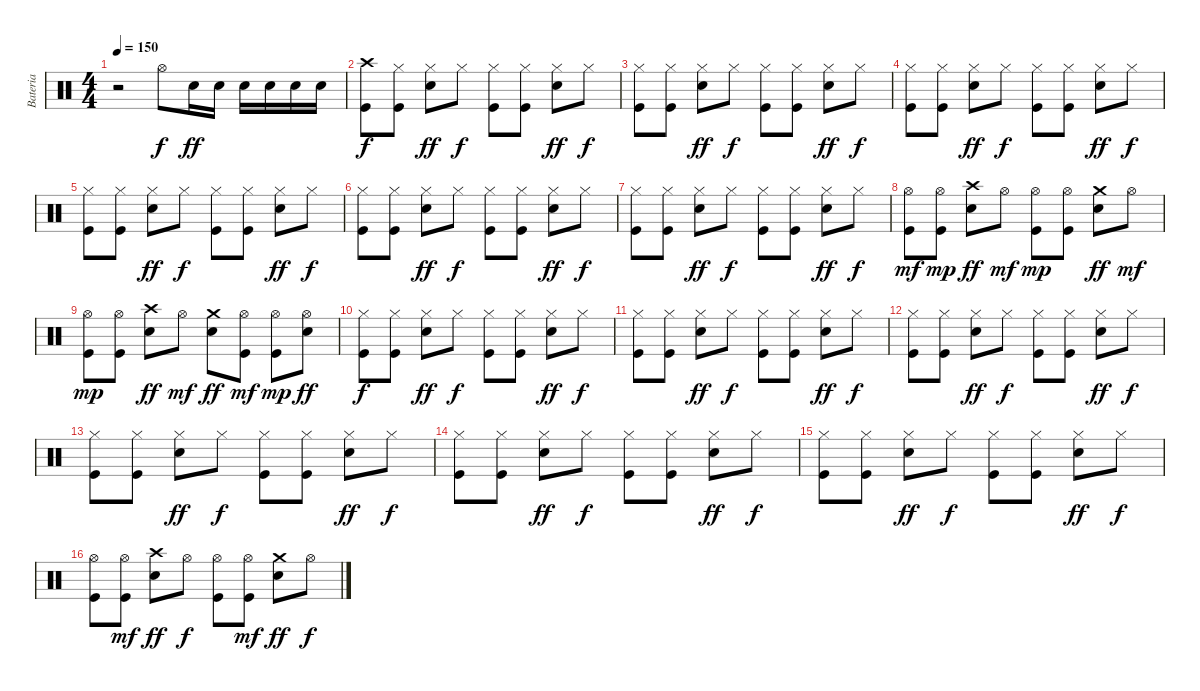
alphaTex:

\track ("Bateria" "Bateria") {instrument percussion}
\staff {score}
\articulation defaults
\ts (4 4)
\tempo 150
\clef neutral
\ks c
r.2{dy f} "Hi-Hat (open)".8 "Electric Snare (hit)".16{dy ff} "Electric Snare (hit)".16 "Electric Snare (hit)".16 "Electric Snare (hit)".16 "Electric Snare (hit)".16 "Electric Snare (hit)".16 |
("Crash high (hit)" "Kick (hit)").8{dy f} ("Hi-Hat (closed)" "Kick (hit)").8 ("Hi-Hat (closed)" "Electric Snare (hit)").8{dy ff} "Hi-Hat (closed)".8{dy f} ("Hi-Hat (closed)" "Kick (hit)").8 ("Hi-Hat (closed)" "Kick (hit)").8 ("Hi-Hat (closed)" "Electric Snare (hit)").8{dy ff} "Hi-Hat (closed)".8{dy f} |
("Hi-Hat (closed)" "Kick (hit)").8 ("Hi-Hat (closed)" "Kick (hit)").8 ("Hi-Hat (closed)" "Electric Snare (hit)").8{dy ff} "Hi-Hat (closed)".8{dy f} ("Hi-Hat (closed)" "Kick (hit)").8 ("Hi-Hat (closed)" "Kick (hit)").8 ("Hi-Hat (closed)" "Electric Snare (hit)").8{dy ff} "Hi-Hat (closed)".8{dy f} |
("Hi-Hat (closed)" "Kick (hit)").8 ("Hi-Hat (closed)" "Kick (hit)").8 ("Hi-Hat (closed)" "Electric Snare (hit)").8{dy ff} "Hi-Hat (closed)".8{dy f} ("Hi-Hat (closed)" "Kick (hit)").8 ("Hi-Hat (closed)" "Kick (hit)").8 ("Hi-Hat (closed)" "Electric Snare (hit)").8{dy ff} "Hi-Hat (closed)".8{dy f} |
("Hi-Hat (closed)" "Kick (hit)").8 ("Hi-Hat (closed)" "Kick (hit)").8 ("Hi-Hat (closed)" "Electric Snare (hit)").8{dy ff} "Hi-Hat (closed)".8{dy f} ("Hi-Hat (closed)" "Kick (hit)").8 ("Hi-Hat (closed)" "Kick (hit)").8 ("Hi-Hat (closed)" "Electric Snare (hit)").8{dy ff} "Hi-Hat (closed)".8{dy f} |
("Hi-Hat (closed)" "Kick (hit)").8 ("Hi-Hat (closed)" "Kick (hit)").8 ("Hi-Hat (closed)" "Electric Snare (hit)").8{dy ff} "Hi-Hat (closed)".8{dy f} ("Hi-Hat (closed)" "Kick (hit)").8 ("Hi-Hat (closed)" "Kick (hit)").8 ("Hi-Hat (closed)" "Electric Snare (hit)").8{dy ff} "Hi-Hat (closed)".8{dy f} |
("Hi-Hat (closed)" "Kick (hit)").8 ("Hi-Hat (closed)" "Kick (hit)").8 ("Hi-Hat (closed)" "Electric Snare (hit)").8{dy ff} "Hi-Hat (closed)".8{dy f} ("Hi-Hat (closed)" "Kick (hit)").8 ("Hi-Hat (closed)" "Kick (hit)").8 ("Hi-Hat (closed)" "Electric Snare (hit)").8{dy ff} "Hi-Hat (closed)".8{dy f} |
("Hi-Hat (open)" "Kick (hit)").8{dy mf} ("Hi-Hat (open)" "Kick (hit)").8{dy mp} ("Crash high (hit)" "Electric Snare (hit)").8{dy ff} "Hi-Hat (open)".8{dy mf} ("Hi-Hat (open)" "Kick (hit)").8{dy mp} ("Hi-Hat (open)" "Kick (hit)").8 ("Crash medium (hit)" "Electric Snare (hit)").8{dy ff} "Hi-Hat (open)".8{dy mf} |
("Hi-Hat (open)" "Kick (hit)").8{dy mp} ("Hi-Hat (open)" "Kick (hit)").8 ("Crash high (hit)" "Electric Snare (hit)").8{dy ff} "Hi-Hat (open)".8{dy mf} ("Crash medium (hit)" "Electric Snare (hit)").8{dy ff} ("Hi-Hat (open)" "Kick (hit)").8{dy mf} ("Hi-Hat (open)" "Kick (hit)").8{dy mp} ("Hi-Hat (open)" "Electric Snare (hit)").8{dy ff} |
("Hi-Hat (closed)" "Kick (hit)").8{dy f} ("Hi-Hat (closed)" "Kick (hit)").8 ("Hi-Hat (closed)" "Electric Snare (hit)").8{dy ff} "Hi-Hat (closed)".8{dy f} ("Hi-Hat (closed)" "Kick (hit)").8 ("Hi-Hat (closed)" "Kick (hit)").8 ("Hi-Hat (closed)" "Electric Snare (hit)").8{dy ff} "Hi-Hat (closed)".8{dy f} |
("Hi-Hat (closed)" "Kick (hit)").8 ("Hi-Hat (closed)" "Kick (hit)").8 ("Hi-Hat (closed)" "Electric Snare (hit)").8{dy ff} "Hi-Hat (closed)".8{dy f} ("Hi-Hat (closed)" "Kick (hit)").8 ("Hi-Hat (closed)" "Kick (hit)").8 ("Hi-Hat (closed)" "Electric Snare (hit)").8{dy ff} "Hi-Hat (closed)".8{dy f} |
("Hi-Hat (closed)" "Kick (hit)").8 ("Hi-Hat (closed)" "Kick (hit)").8 ("Hi-Hat (closed)" "Electric Snare (hit)").8{dy ff} "Hi-Hat (closed)".8{dy f} ("Hi-Hat (closed)" "Kick (hit)").8 ("Hi-Hat (closed)" "Kick (hit)").8 ("Hi-Hat (closed)" "Electric Snare (hit)").8{dy ff} "Hi-Hat (closed)".8{dy f} |
("Hi-Hat (closed)" "Kick (hit)").8 ("Hi-Hat (closed)" "Kick (hit)").8 ("Hi-Hat (closed)" "Electric Snare (hit)").8{dy ff} "Hi-Hat (closed)".8{dy f} ("Hi-Hat (closed)" "Kick (hit)").8 ("Hi-Hat (closed)" "Kick (hit)").8 ("Hi-Hat (closed)" "Electric Snare (hit)").8{dy ff} "Hi-Hat (closed)".8{dy f} |
("Hi-Hat (closed)" "Kick (hit)").8 ("Hi-Hat (closed)" "Kick (hit)").8 ("Hi-Hat (closed)" "Electric Snare (hit)").8{dy ff} "Hi-Hat (closed)".8{dy f} ("Hi-Hat (closed)" "Kick (hit)").8 ("Hi-Hat (closed)" "Kick (hit)").8 ("Hi-Hat (closed)" "Electric Snare (hit)").8{dy ff} "Hi-Hat (closed)".8{dy f} |
("Hi-Hat (closed)" "Kick (hit)").8 ("Hi-Hat (closed)" "Kick (hit)").8 ("Hi-Hat (closed)" "Electric Snare (hit)").8{dy ff} "Hi-Hat (closed)".8{dy f} ("Hi-Hat (closed)" "Kick (hit)").8 ("Hi-Hat (closed)" "Kick (hit)").8 ("Hi-Hat (closed)" "Electric Snare (hit)").8{dy ff} "Hi-Hat (closed)".8{dy f} |
("Hi-Hat (open)" "Kick (hit)").8 ("Hi-Hat (open)" "Kick (hit)").8{dy mf} ("Crash high (hit)" "Electric Snare (hit)").8{dy ff} "Hi-Hat (open)".8{dy f} ("Hi-Hat (open)" "Kick (hit)").8 ("Hi-Hat (open)" "Kick (hit)").8{dy mf} ("Crash medium (hit)" "Electric Snare (hit)").8{dy ff} "Hi-Hat (open)".8{dy f}
